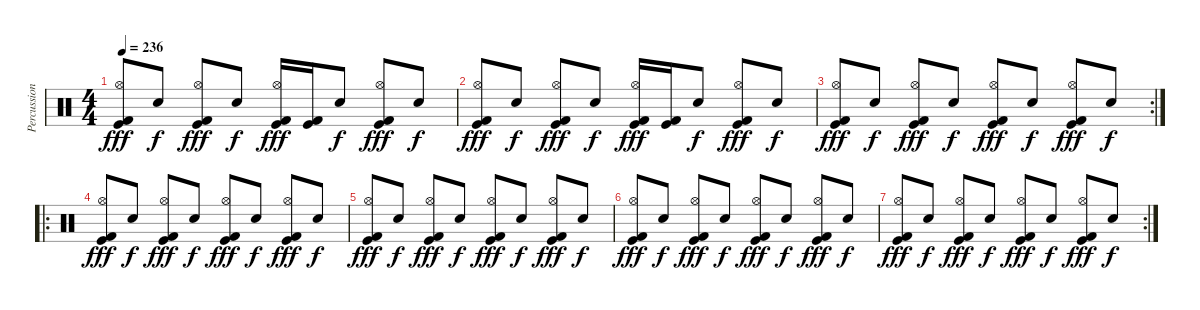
\track ("Percussion" "Percussion") {instrument percussion}
\staff {score}
\articulation defaults
\ts (4 4)
\tempo 236
\clef neutral
\ks c
("Kick (hit)" "Hi-Hat (open)" "Kick (hit) 2").8{dy fff} "Electric Snare (hit)".8{dy f} ("Kick (hit)" "Hi-Hat (open)" "Kick (hit) 2").8{dy fff} "Electric Snare (hit)".8{dy f} ("Kick (hit)" "Hi-Hat (open)" "Kick (hit) 2").16{dy fff} ("Kick (hit)" "Kick (hit) 2").16 "Electric Snare (hit)".8{dy f} ("Kick (hit)" "Hi-Hat (open)" "Kick (hit) 2").8{dy fff} "Electric Snare (hit)".8{dy f} |
("Kick (hit)" "Hi-Hat (open)" "Kick (hit) 2").8{dy fff} "Electric Snare (hit)".8{dy f} ("Kick (hit)" "Hi-Hat (open)" "Kick (hit) 2").8{dy fff} "Electric Snare (hit)".8{dy f} ("Kick (hit)" "Hi-Hat (open)" "Kick (hit) 2").16{dy fff} ("Kick (hit)" "Kick (hit) 2").16 "Electric Snare (hit)".8{dy f} ("Kick (hit)" "Hi-Hat (open)" "Kick (hit) 2").8{dy fff} "Electric Snare (hit)".8{dy f} |
\rc 2
("Kick (hit)" "Kick (hit) 2" "Hi-Hat (open)").8{dy fff} "Electric Snare (hit)".8{dy f} ("Kick (hit) 2" "Kick (hit)" "Hi-Hat (open)").8{dy fff} "Electric Snare (hit)".8{dy f} ("Kick (hit)" "Kick (hit) 2" "Hi-Hat (open)").8{dy fff} "Electric Snare (hit)".8{dy f} ("Kick (hit)" "Kick (hit) 2" "Hi-Hat (open)").8{dy fff} "Electric Snare (hit)".8{dy f} |
\ro
("Kick (hit)" "Hi-Hat (open)" "Kick (hit) 2").8{dy fff} "Electric Snare (hit)".8{dy f} ("Kick (hit)" "Hi-Hat (open)" "Kick (hit) 2").8{dy fff} "Electric Snare (hit)".8{dy f} ("Kick (hit)" "Hi-Hat (open)" "Kick (hit) 2").8{dy fff} "Electric Snare (hit)".8{dy f} ("Kick (hit)" "Hi-Hat (open)" "Kick (hit) 2").8{dy fff} "Electric Snare (hit)".8{dy f} |
("Kick (hit)" "Hi-Hat (open)" "Kick (hit) 2").8{dy fff} "Electric Snare (hit)".8{dy f} ("Kick (hit)" "Hi-Hat (open)" "Kick (hit) 2").8{dy fff} "Electric Snare (hit)".8{dy f} ("Kick (hit)" "Hi-Hat (open)" "Kick (hit) 2").8{dy fff} "Electric Snare (hit)".8{dy f} ("Kick (hit)" "Hi-Hat (open)" "Kick (hit) 2").8{dy fff} "Electric Snare (hit)".8{dy f} |
("Kick (hit)" "Hi-Hat (open)" "Kick (hit) 2").8{dy fff} "Electric Snare (hit)".8{dy f} ("Kick (hit)" "Hi-Hat (open)" "Kick (hit) 2").8{dy fff} "Electric Snare (hit)".8{dy f} ("Kick (hit)" "Hi-Hat (open)" "Kick (hit) 2").8{dy fff} "Electric Snare (hit)".8{dy f} ("Kick (hit)" "Hi-Hat (open)" "Kick (hit) 2").8{dy fff} "Electric Snare (hit)".8{dy f} |
\rc 2
("Kick (hit)" "Hi-Hat (open)" "Kick (hit) 2").8{dy fff} "Electric Snare (hit)".8{dy f} ("Kick (hit)" "Hi-Hat (open)" "Kick (hit) 2").8{dy fff} "Electric Snare (hit)".8{dy f} ("Kick (hit)" "Hi-Hat (open)" "Kick (hit) 2").8{dy fff} "Electric Snare (hit)".8{dy f} ("Kick (hit)" "Hi-Hat (open)" "Kick (hit) 2").8{dy fff} "Electric Snare (hit)".8{dy f}
